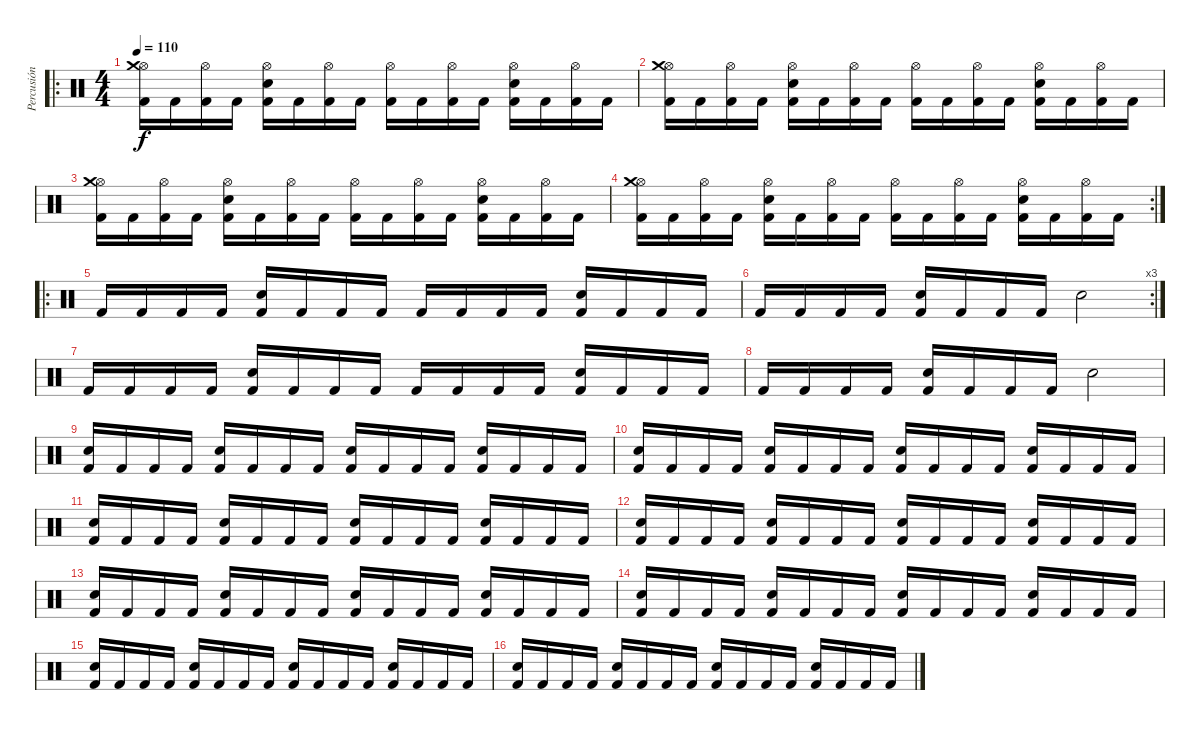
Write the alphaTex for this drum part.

\track ("Percusión" "Percusión") {instrument percussion}
\staff {score}
\articulation defaults
\ro
\ts (4 4)
\tempo 110
\clef neutral
\ks c
("Hi-Hat (open)" "Crash medium (hit)" "Kick (hit) 2").16{dy f} "Kick (hit) 2".16 ("Hi-Hat (open)" "Kick (hit) 2").16 "Kick (hit) 2".16 ("Hi-Hat (open)" "Electric Snare (hit)" "Kick (hit) 2").16 "Kick (hit) 2".16 ("Hi-Hat (open)" "Kick (hit) 2").16 "Kick (hit) 2".16 ("Hi-Hat (open)" "Kick (hit) 2").16 "Kick (hit) 2".16 ("Hi-Hat (open)" "Kick (hit) 2").16 "Kick (hit) 2".16 ("Hi-Hat (open)" "Electric Snare (hit)" "Kick (hit) 2").16 "Kick (hit) 2".16 ("Hi-Hat (open)" "Kick (hit) 2").16 "Kick (hit) 2".16 |
("Hi-Hat (open)" "Crash medium (hit)" "Kick (hit) 2").16 "Kick (hit) 2".16 ("Hi-Hat (open)" "Kick (hit) 2").16 "Kick (hit) 2".16 ("Hi-Hat (open)" "Electric Snare (hit)" "Kick (hit) 2").16 "Kick (hit) 2".16 ("Hi-Hat (open)" "Kick (hit) 2").16 "Kick (hit) 2".16 ("Hi-Hat (open)" "Kick (hit) 2").16 "Kick (hit) 2".16 ("Hi-Hat (open)" "Kick (hit) 2").16 "Kick (hit) 2".16 ("Hi-Hat (open)" "Electric Snare (hit)" "Kick (hit) 2").16 "Kick (hit) 2".16 ("Hi-Hat (open)" "Kick (hit) 2").16 "Kick (hit) 2".16 |
("Hi-Hat (open)" "Crash medium (hit)" "Kick (hit) 2").16 "Kick (hit) 2".16 ("Hi-Hat (open)" "Kick (hit) 2").16 "Kick (hit) 2".16 ("Hi-Hat (open)" "Electric Snare (hit)" "Kick (hit) 2").16 "Kick (hit) 2".16 ("Hi-Hat (open)" "Kick (hit) 2").16 "Kick (hit) 2".16 ("Hi-Hat (open)" "Kick (hit) 2").16 "Kick (hit) 2".16 ("Hi-Hat (open)" "Kick (hit) 2").16 "Kick (hit) 2".16 ("Hi-Hat (open)" "Electric Snare (hit)" "Kick (hit) 2").16 "Kick (hit) 2".16 ("Hi-Hat (open)" "Kick (hit) 2").16 "Kick (hit) 2".16 |
\rc 2
("Hi-Hat (open)" "Crash medium (hit)" "Kick (hit) 2").16 "Kick (hit) 2".16 ("Hi-Hat (open)" "Kick (hit) 2").16 "Kick (hit) 2".16 ("Hi-Hat (open)" "Electric Snare (hit)" "Kick (hit) 2").16 "Kick (hit) 2".16 ("Hi-Hat (open)" "Kick (hit) 2").16 "Kick (hit) 2".16 ("Hi-Hat (open)" "Kick (hit) 2").16 "Kick (hit) 2".16 ("Hi-Hat (open)" "Kick (hit) 2").16 "Kick (hit) 2".16 ("Hi-Hat (open)" "Electric Snare (hit)" "Kick (hit) 2").16 "Kick (hit) 2".16 ("Hi-Hat (open)" "Kick (hit) 2").16 "Kick (hit) 2".16 |
\ro "Kick (hit) 2".16 "Kick (hit) 2".16 "Kick (hit) 2".16 "Kick (hit) 2".16
("Electric Snare (hit)" "Kick (hit) 2").16 "Kick (hit) 2".16 "Kick (hit) 2".16 "Kick (hit) 2".16 "Kick (hit) 2".16 "Kick (hit) 2".16 "Kick (hit) 2".16 "Kick (hit) 2".16 ("Electric Snare (hit)" "Kick (hit) 2").16 "Kick (hit) 2".16 "Kick (hit) 2".16 "Kick (hit) 2".16 |
\rc 3 "Kick (hit) 2".16 "Kick (hit) 2".16 "Kick (hit) 2".16 "Kick (hit) 2".16
("Electric Snare (hit)" "Kick (hit) 2").16 "Kick (hit) 2".16 "Kick (hit) 2".16 "Kick (hit) 2".16 "Electric Snare (hit)".2 |
"Kick (hit) 2".16 "Kick (hit) 2".16 "Kick (hit) 2".16 "Kick (hit) 2".16 ("Electric Snare (hit)" "Kick (hit) 2").16 "Kick (hit) 2".16 "Kick (hit) 2".16 "Kick (hit) 2".16 "Kick (hit) 2".16 "Kick (hit) 2".16 "Kick (hit) 2".16 "Kick (hit) 2".16 ("Electric Snare (hit)" "Kick (hit) 2").16 "Kick (hit) 2".16 "Kick (hit) 2".16 "Kick (hit) 2".16 |
"Kick (hit) 2".16 "Kick (hit) 2".16 "Kick (hit) 2".16 "Kick (hit) 2".16 ("Electric Snare (hit)" "Kick (hit) 2").16 "Kick (hit) 2".16 "Kick (hit) 2".16 "Kick (hit) 2".16 "Electric Snare (hit)".2 |
("Electric Snare (hit)" "Kick (hit) 2").16 "Kick (hit) 2".16 "Kick (hit) 2".16 "Kick (hit) 2".16 ("Electric Snare (hit)" "Kick (hit) 2").16 "Kick (hit) 2".16 "Kick (hit) 2".16 "Kick (hit) 2".16 ("Electric Snare (hit)" "Kick (hit) 2").16 "Kick (hit) 2".16 "Kick (hit) 2".16 "Kick (hit) 2".16 ("Electric Snare (hit)" "Kick (hit) 2").16 "Kick (hit) 2".16 "Kick (hit) 2".16 "Kick (hit) 2".16 |
("Electric Snare (hit)" "Kick (hit) 2").16 "Kick (hit) 2".16 "Kick (hit) 2".16 "Kick (hit) 2".16 ("Electric Snare (hit)" "Kick (hit) 2").16 "Kick (hit) 2".16 "Kick (hit) 2".16 "Kick (hit) 2".16 ("Electric Snare (hit)" "Kick (hit) 2").16 "Kick (hit) 2".16 "Kick (hit) 2".16 "Kick (hit) 2".16 ("Electric Snare (hit)" "Kick (hit) 2").16 "Kick (hit) 2".16 "Kick (hit) 2".16 "Kick (hit) 2".16 |
("Electric Snare (hit)" "Kick (hit) 2").16 "Kick (hit) 2".16 "Kick (hit) 2".16 "Kick (hit) 2".16 ("Electric Snare (hit)" "Kick (hit) 2").16 "Kick (hit) 2".16 "Kick (hit) 2".16 "Kick (hit) 2".16 ("Electric Snare (hit)" "Kick (hit) 2").16 "Kick (hit) 2".16 "Kick (hit) 2".16 "Kick (hit) 2".16 ("Electric Snare (hit)" "Kick (hit) 2").16 "Kick (hit) 2".16 "Kick (hit) 2".16 "Kick (hit) 2".16 |
("Electric Snare (hit)" "Kick (hit) 2").16 "Kick (hit) 2".16 "Kick (hit) 2".16 "Kick (hit) 2".16 ("Electric Snare (hit)" "Kick (hit) 2").16 "Kick (hit) 2".16 "Kick (hit) 2".16 "Kick (hit) 2".16 ("Electric Snare (hit)" "Kick (hit) 2").16 "Kick (hit) 2".16 "Kick (hit) 2".16 "Kick (hit) 2".16 ("Electric Snare (hit)" "Kick (hit) 2").16 "Kick (hit) 2".16 "Kick (hit) 2".16 "Kick (hit) 2".16 |
("Electric Snare (hit)" "Kick (hit) 2").16 "Kick (hit) 2".16 "Kick (hit) 2".16 "Kick (hit) 2".16 ("Electric Snare (hit)" "Kick (hit) 2").16 "Kick (hit) 2".16 "Kick (hit) 2".16 "Kick (hit) 2".16 ("Electric Snare (hit)" "Kick (hit) 2").16 "Kick (hit) 2".16 "Kick (hit) 2".16 "Kick (hit) 2".16 ("Electric Snare (hit)" "Kick (hit) 2").16 "Kick (hit) 2".16 "Kick (hit) 2".16 "Kick (hit) 2".16 |
("Electric Snare (hit)" "Kick (hit) 2").16 "Kick (hit) 2".16 "Kick (hit) 2".16 "Kick (hit) 2".16 ("Electric Snare (hit)" "Kick (hit) 2").16 "Kick (hit) 2".16 "Kick (hit) 2".16 "Kick (hit) 2".16 ("Electric Snare (hit)" "Kick (hit) 2").16 "Kick (hit) 2".16 "Kick (hit) 2".16 "Kick (hit) 2".16 ("Electric Snare (hit)" "Kick (hit) 2").16 "Kick (hit) 2".16 "Kick (hit) 2".16 "Kick (hit) 2".16 |
("Electric Snare (hit)" "Kick (hit) 2").16 "Kick (hit) 2".16 "Kick (hit) 2".16 "Kick (hit) 2".16 ("Electric Snare (hit)" "Kick (hit) 2").16 "Kick (hit) 2".16 "Kick (hit) 2".16 "Kick (hit) 2".16 ("Electric Snare (hit)" "Kick (hit) 2").16 "Kick (hit) 2".16 "Kick (hit) 2".16 "Kick (hit) 2".16 ("Electric Snare (hit)" "Kick (hit) 2").16 "Kick (hit) 2".16 "Kick (hit) 2".16 "Kick (hit) 2".16 |
("Electric Snare (hit)" "Kick (hit) 2").16 "Kick (hit) 2".16 "Kick (hit) 2".16 "Kick (hit) 2".16 ("Electric Snare (hit)" "Kick (hit) 2").16 "Kick (hit) 2".16 "Kick (hit) 2".16 "Kick (hit) 2".16 ("Electric Snare (hit)" "Kick (hit) 2").16 "Kick (hit) 2".16 "Kick (hit) 2".16 "Kick (hit) 2".16 ("Electric Snare (hit)" "Kick (hit) 2").16 "Kick (hit) 2".16 "Kick (hit) 2".16 "Kick (hit) 2".16
